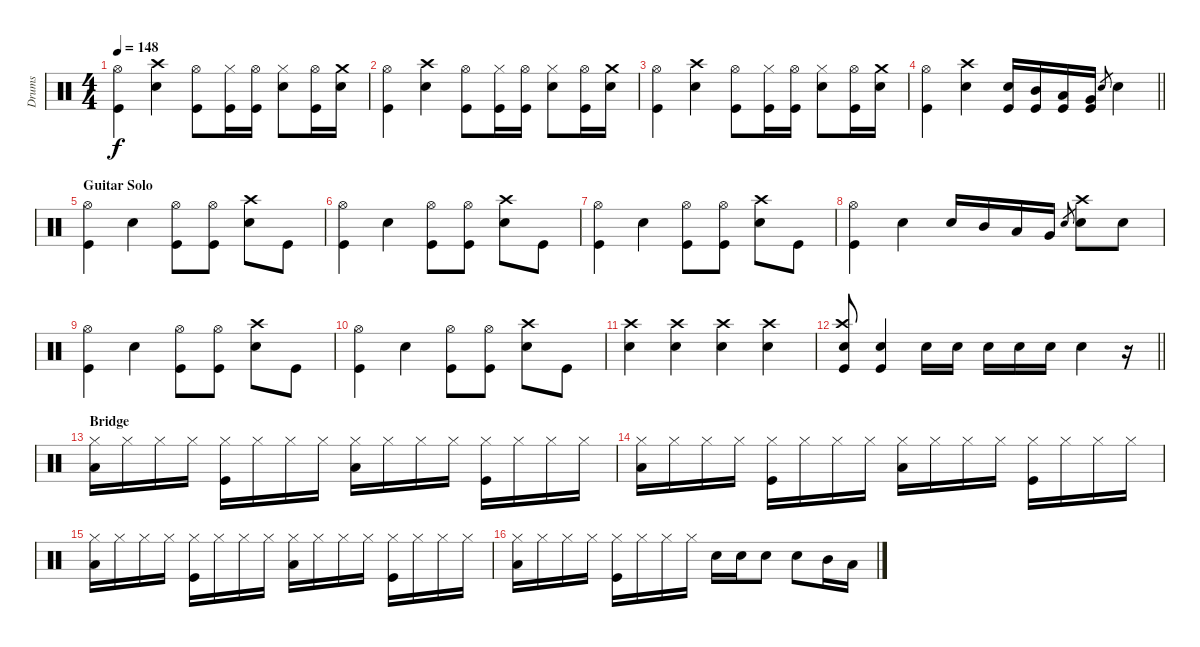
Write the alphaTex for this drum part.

\track ("Drums" "Drums") {instrument percussion}
\staff {score}
\articulation defaults
\ts (4 4)
\tempo 148
\clef neutral
\ks c
("Hi-Hat (open)" "Kick (hit)").4{dy f} ("Crash high (hit)" "Electric Snare (hit)").4 ("Hi-Hat (open)" "Kick (hit)").8 ("Hi-Hat (closed)" "Kick (hit)").16 ("Hi-Hat (open)" "Kick (hit)").16 ("Hi-Hat (closed)" "Electric Snare (hit)").8 ("Hi-Hat (open)" "Kick (hit)").16 ("Crash medium (hit)" "Electric Snare (hit)").16 |
("Hi-Hat (open)" "Kick (hit)").4 ("Crash high (hit)" "Electric Snare (hit)").4 ("Hi-Hat (open)" "Kick (hit)").8 ("Hi-Hat (closed)" "Kick (hit)").16 ("Hi-Hat (open)" "Kick (hit)").16 ("Hi-Hat (closed)" "Electric Snare (hit)").8 ("Hi-Hat (open)" "Kick (hit)").16 ("Crash medium (hit)" "Electric Snare (hit)").16 |
("Hi-Hat (open)" "Kick (hit)").4 ("Crash high (hit)" "Electric Snare (hit)").4 ("Hi-Hat (open)" "Kick (hit)").8 ("Hi-Hat (closed)" "Kick (hit)").16 ("Hi-Hat (open)" "Kick (hit)").16 ("Hi-Hat (closed)" "Electric Snare (hit)").8 ("Hi-Hat (open)" "Kick (hit)").16 ("Crash medium (hit)" "Electric Snare (hit)").16 |
\barLineRight lightlight
("Hi-Hat (open)" "Kick (hit)").4 ("Crash high (hit)" "Electric Snare (hit)").4 ("Electric Snare (hit)" "Kick (hit)").16 ("Mid Tom (hit)" "Kick (hit)").16 ("Low Tom (hit)" "Kick (hit)").16 ("Very Low Tom (hit)" "Kick (hit)").16 "Electric Snare (hit)".8{gr} "Electric Snare (hit)".4 |
\section ("" "Guitar Solo")
("Hi-Hat (open)" "Kick (hit)").4 "Electric Snare (hit)".4 ("Hi-Hat (open)" "Kick (hit)").8 ("Hi-Hat (open)" "Kick (hit)").8 ("Crash high (hit)" "Electric Snare (hit)").8 "Kick (hit)".8 |
("Hi-Hat (open)" "Kick (hit)").4 "Electric Snare (hit)".4 ("Hi-Hat (open)" "Kick (hit)").8 ("Hi-Hat (open)" "Kick (hit)").8 ("Crash high (hit)" "Electric Snare (hit)").8 "Kick (hit)".8 |
("Hi-Hat (open)" "Kick (hit)").4 "Electric Snare (hit)".4 ("Hi-Hat (open)" "Kick (hit)").8 ("Hi-Hat (open)" "Kick (hit)").8 ("Crash high (hit)" "Electric Snare (hit)").8 "Kick (hit)".8 |
("Hi-Hat (open)" "Kick (hit)").4 "Electric Snare (hit)".4 "Electric Snare (hit)".16 "Mid Tom (hit)".16 "Low Tom (hit)".16 "Very Low Tom (hit)".16 "Electric Snare (hit)".8{gr} ("Crash high (hit)" "Electric Snare (hit)").8 "Electric Snare (hit)".8 |
("Hi-Hat (open)" "Kick (hit)").4 "Electric Snare (hit)".4 ("Hi-Hat (open)" "Kick (hit)").8 ("Hi-Hat (open)" "Kick (hit)").8 ("Crash high (hit)" "Electric Snare (hit)").8 "Kick (hit)".8 |
("Hi-Hat (open)" "Kick (hit)").4 "Electric Snare (hit)".4 ("Hi-Hat (open)" "Kick (hit)").8 ("Hi-Hat (open)" "Kick (hit)").8 ("Crash high (hit)" "Electric Snare (hit)").8 "Kick (hit)".8 |
("Crash high (hit)" "Electric Snare (hit)").4 ("Crash high (hit)" "Electric Snare (hit)").4 ("Crash high (hit)" "Electric Snare (hit)").4 ("Crash high (hit)" "Electric Snare (hit)").4 |
\barLineRight lightlight
("Crash high (hit)" "Electric Snare (hit)" "Kick (hit)").8 ("Electric Snare (hit)" "Kick (hit)").4 "Electric Snare (hit)".16 "Electric Snare (hit)".16 "Electric Snare (hit)".16 "Electric Snare (hit)".16 "Electric Snare (hit)".16 "Electric Snare (hit)".4 r.16 |
\section ("" "Bridge")
("Hi-Hat (closed)" "Low Floor Tom (hit)").16 "Hi-Hat (closed)".16 "Hi-Hat (closed)".16 "Hi-Hat (closed)".16 ("Hi-Hat (closed)" "Kick (hit)").16 "Hi-Hat (closed)".16 "Hi-Hat (closed)".16 "Hi-Hat (closed)".16 ("Hi-Hat (closed)" "Low Floor Tom (hit)").16 "Hi-Hat (closed)".16 "Hi-Hat (closed)".16 "Hi-Hat (closed)".16 ("Hi-Hat (closed)" "Kick (hit)").16 "Hi-Hat (closed)".16 "Hi-Hat (closed)".16 "Hi-Hat (closed)".16 |
("Hi-Hat (closed)" "Low Floor Tom (hit)").16 "Hi-Hat (closed)".16 "Hi-Hat (closed)".16 "Hi-Hat (closed)".16 ("Hi-Hat (closed)" "Kick (hit)").16 "Hi-Hat (closed)".16 "Hi-Hat (closed)".16 "Hi-Hat (closed)".16 ("Hi-Hat (closed)" "Low Floor Tom (hit)").16 "Hi-Hat (closed)".16 "Hi-Hat (closed)".16 "Hi-Hat (closed)".16 ("Hi-Hat (closed)" "Kick (hit)").16 "Hi-Hat (closed)".16 "Hi-Hat (closed)".16 "Hi-Hat (closed)".16 |
("Hi-Hat (closed)" "Low Floor Tom (hit)").16 "Hi-Hat (closed)".16 "Hi-Hat (closed)".16 "Hi-Hat (closed)".16 ("Hi-Hat (closed)" "Kick (hit)").16 "Hi-Hat (closed)".16 "Hi-Hat (closed)".16 "Hi-Hat (closed)".16 ("Hi-Hat (closed)" "Low Floor Tom (hit)").16 "Hi-Hat (closed)".16 "Hi-Hat (closed)".16 "Hi-Hat (closed)".16 ("Hi-Hat (closed)" "Kick (hit)").16 "Hi-Hat (closed)".16 "Hi-Hat (closed)".16 "Hi-Hat (closed)".16 |
("Hi-Hat (closed)" "Low Floor Tom (hit)").16 "Hi-Hat (closed)".16 "Hi-Hat (closed)".16 "Hi-Hat (closed)".16 ("Hi-Hat (closed)" "Kick (hit)").16 "Hi-Hat (closed)".16 "Hi-Hat (closed)".16 "Hi-Hat (closed)".16 "Electric Snare (hit)".16 "Electric Snare (hit)".16 "Electric Snare (hit)".8 "Electric Snare (hit)".8 "Mid Tom (hit)".16 "Low Tom (hit)".16
